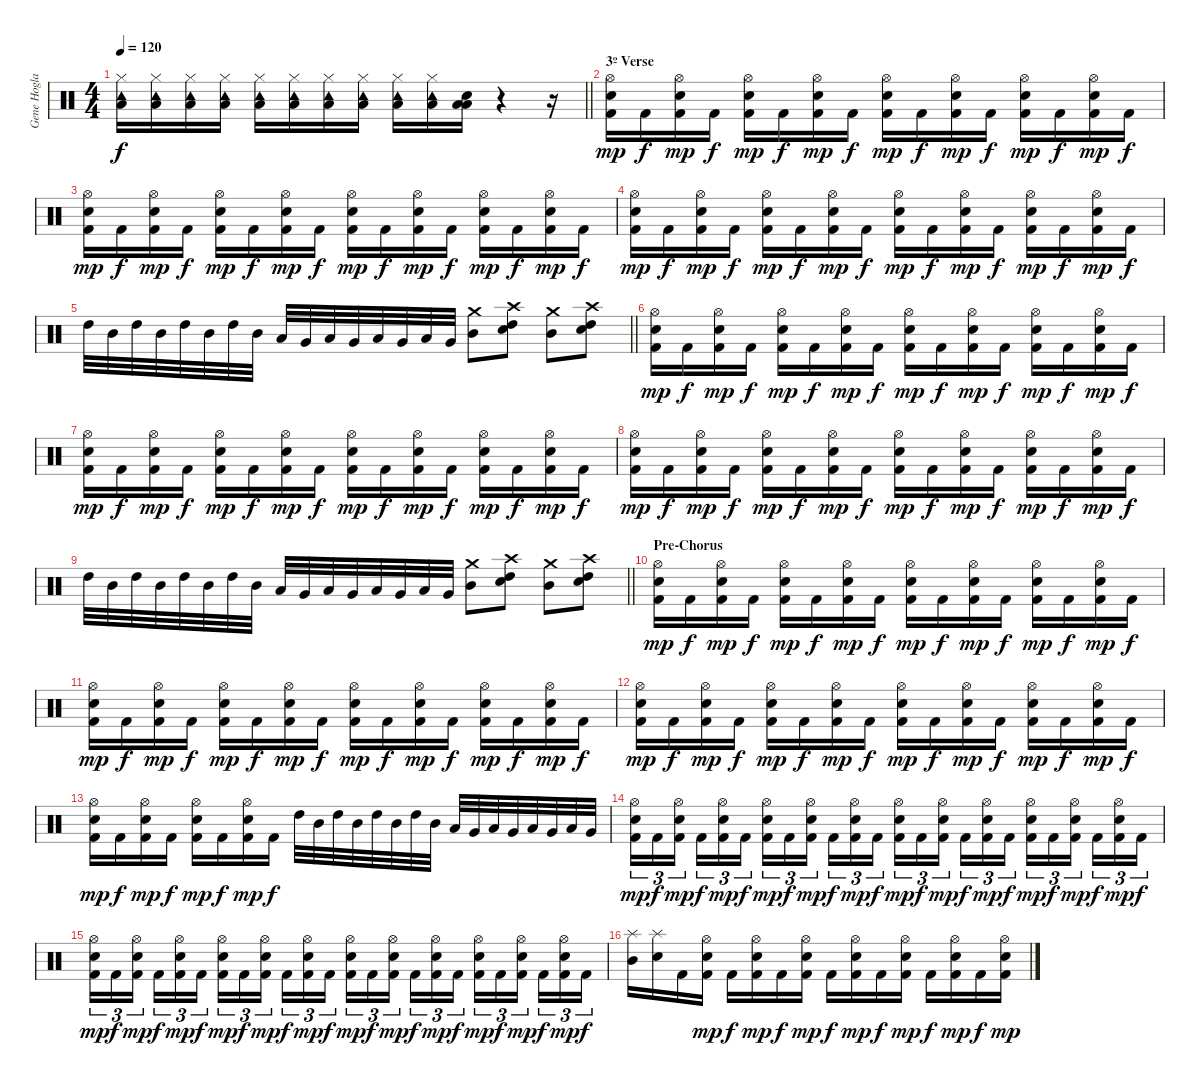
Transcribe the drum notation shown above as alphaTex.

\track ("Gene Hoglan" "Gene Hogla") {instrument percussion}
\staff {score}
\articulation defaults
\ts (4 4)
\tempo 120
\clef neutral
\barLineRight lightlight
\ks c
("Hi-Hat (closed)" "Tambourine (hit)" "Low Floor Tom (hit)").16{dy f} ("Hi-Hat (closed)" "Tambourine (hit)" "Low Floor Tom (hit)").16 ("Hi-Hat (closed)" "Tambourine (hit)" "Low Floor Tom (hit)").16 ("Hi-Hat (closed)" "Tambourine (hit)" "Low Floor Tom (hit)").16 ("Hi-Hat (closed)" "Tambourine (hit)" "Low Floor Tom (hit)").16 ("Hi-Hat (closed)" "Tambourine (hit)" "Low Floor Tom (hit)").16 ("Hi-Hat (closed)" "Tambourine (hit)" "Low Floor Tom (hit)").16 ("Hi-Hat (closed)" "Tambourine (hit)" "Low Floor Tom (hit)").16 ("Hi-Hat (closed)" "Tambourine (hit)" "Low Floor Tom (hit)").16 ("Hi-Hat (closed)" "Tambourine (hit)" "Low Floor Tom (hit)").16 ("Low Tom (hit)" "Electric Snare (hit)" "Low Floor Tom (hit)").16 r.4 r.16 |
\section ("" "3º Verse")
("Hi-Hat (open)" "Snare (hit) 2" "Kick (hit) 2").16{dy mp} "Kick (hit) 2".16{dy f} ("Hi-Hat (open)" "Snare (hit) 2" "Kick (hit) 2").16{dy mp} "Kick (hit) 2".16{dy f} ("Hi-Hat (open)" "Snare (hit) 2" "Kick (hit) 2").16{dy mp} "Kick (hit) 2".16{dy f} ("Hi-Hat (open)" "Snare (hit) 2" "Kick (hit) 2").16{dy mp} "Kick (hit) 2".16{dy f} ("Hi-Hat (open)" "Snare (hit) 2" "Kick (hit) 2").16{dy mp} "Kick (hit) 2".16{dy f} ("Hi-Hat (open)" "Snare (hit) 2" "Kick (hit) 2").16{dy mp} "Kick (hit) 2".16{dy f} ("Hi-Hat (open)" "Snare (hit) 2" "Kick (hit) 2").16{dy mp} "Kick (hit) 2".16{dy f} ("Hi-Hat (open)" "Snare (hit) 2" "Kick (hit) 2").16{dy mp} "Kick (hit) 2".16{dy f} |
("Hi-Hat (open)" "Snare (hit) 2" "Kick (hit) 2").16{dy mp} "Kick (hit) 2".16{dy f} ("Hi-Hat (open)" "Snare (hit) 2" "Kick (hit) 2").16{dy mp} "Kick (hit) 2".16{dy f} ("Hi-Hat (open)" "Snare (hit) 2" "Kick (hit) 2").16{dy mp} "Kick (hit) 2".16{dy f} ("Hi-Hat (open)" "Snare (hit) 2" "Kick (hit) 2").16{dy mp} "Kick (hit) 2".16{dy f} ("Hi-Hat (open)" "Snare (hit) 2" "Kick (hit) 2").16{dy mp} "Kick (hit) 2".16{dy f} ("Hi-Hat (open)" "Snare (hit) 2" "Kick (hit) 2").16{dy mp} "Kick (hit) 2".16{dy f} ("Hi-Hat (open)" "Snare (hit) 2" "Kick (hit) 2").16{dy mp} "Kick (hit) 2".16{dy f} ("Hi-Hat (open)" "Snare (hit) 2" "Kick (hit) 2").16{dy mp} "Kick (hit) 2".16{dy f} |
("Hi-Hat (open)" "Snare (hit) 2" "Kick (hit) 2").16{dy mp} "Kick (hit) 2".16{dy f} ("Hi-Hat (open)" "Snare (hit) 2" "Kick (hit) 2").16{dy mp} "Kick (hit) 2".16{dy f} ("Hi-Hat (open)" "Snare (hit) 2" "Kick (hit) 2").16{dy mp} "Kick (hit) 2".16{dy f} ("Hi-Hat (open)" "Snare (hit) 2" "Kick (hit) 2").16{dy mp} "Kick (hit) 2".16{dy f} ("Hi-Hat (open)" "Snare (hit) 2" "Kick (hit) 2").16{dy mp} "Kick (hit) 2".16{dy f} ("Hi-Hat (open)" "Snare (hit) 2" "Kick (hit) 2").16{dy mp} "Kick (hit) 2".16{dy f} ("Hi-Hat (open)" "Snare (hit) 2" "Kick (hit) 2").16{dy mp} "Kick (hit) 2".16{dy f} ("Hi-Hat (open)" "Snare (hit) 2" "Kick (hit) 2").16{dy mp} "Kick (hit) 2".16{dy f} |
\barLineRight lightlight "High Tom (hit)".32 "Mid Tom (hit)".32 "High Tom (hit)".32 "Mid Tom (hit)".32 "High Tom (hit)".32 "Mid Tom (hit)".32 "High Tom (hit)".32 "Mid Tom (hit)".32 "Low Tom (hit)".32 "Very Low Tom (hit)".32 "Low Tom (hit)".32 "Very Low Tom (hit)".32 "Low Tom (hit)".32 "Very Low Tom (hit)".32 "Low Tom (hit)".32 "Very Low Tom (hit)".32
("Mid Tom (hit)" "Crash medium (hit)").8 ("High Tom (hit)" "Crash high (hit)" "Electric Snare (hit)").8 ("Mid Tom (hit)" "Crash medium (hit)").8 ("High Tom (hit)" "Crash high (hit)" "Electric Snare (hit)").8 |
("Hi-Hat (open)" "Snare (hit) 2" "Kick (hit) 2").16{dy mp} "Kick (hit) 2".16{dy f} ("Hi-Hat (open)" "Snare (hit) 2" "Kick (hit) 2").16{dy mp} "Kick (hit) 2".16{dy f} ("Hi-Hat (open)" "Snare (hit) 2" "Kick (hit) 2").16{dy mp} "Kick (hit) 2".16{dy f} ("Hi-Hat (open)" "Snare (hit) 2" "Kick (hit) 2").16{dy mp} "Kick (hit) 2".16{dy f} ("Hi-Hat (open)" "Snare (hit) 2" "Kick (hit) 2").16{dy mp} "Kick (hit) 2".16{dy f} ("Hi-Hat (open)" "Snare (hit) 2" "Kick (hit) 2").16{dy mp} "Kick (hit) 2".16{dy f} ("Hi-Hat (open)" "Snare (hit) 2" "Kick (hit) 2").16{dy mp} "Kick (hit) 2".16{dy f} ("Hi-Hat (open)" "Snare (hit) 2" "Kick (hit) 2").16{dy mp} "Kick (hit) 2".16{dy f} |
("Hi-Hat (open)" "Snare (hit) 2" "Kick (hit) 2").16{dy mp} "Kick (hit) 2".16{dy f} ("Hi-Hat (open)" "Snare (hit) 2" "Kick (hit) 2").16{dy mp} "Kick (hit) 2".16{dy f} ("Hi-Hat (open)" "Snare (hit) 2" "Kick (hit) 2").16{dy mp} "Kick (hit) 2".16{dy f} ("Hi-Hat (open)" "Snare (hit) 2" "Kick (hit) 2").16{dy mp} "Kick (hit) 2".16{dy f} ("Hi-Hat (open)" "Snare (hit) 2" "Kick (hit) 2").16{dy mp} "Kick (hit) 2".16{dy f} ("Hi-Hat (open)" "Snare (hit) 2" "Kick (hit) 2").16{dy mp} "Kick (hit) 2".16{dy f} ("Hi-Hat (open)" "Snare (hit) 2" "Kick (hit) 2").16{dy mp} "Kick (hit) 2".16{dy f} ("Hi-Hat (open)" "Snare (hit) 2" "Kick (hit) 2").16{dy mp} "Kick (hit) 2".16{dy f} |
("Hi-Hat (open)" "Snare (hit) 2" "Kick (hit) 2").16{dy mp} "Kick (hit) 2".16{dy f} ("Hi-Hat (open)" "Snare (hit) 2" "Kick (hit) 2").16{dy mp} "Kick (hit) 2".16{dy f} ("Hi-Hat (open)" "Snare (hit) 2" "Kick (hit) 2").16{dy mp} "Kick (hit) 2".16{dy f} ("Hi-Hat (open)" "Snare (hit) 2" "Kick (hit) 2").16{dy mp} "Kick (hit) 2".16{dy f} ("Hi-Hat (open)" "Snare (hit) 2" "Kick (hit) 2").16{dy mp} "Kick (hit) 2".16{dy f} ("Hi-Hat (open)" "Snare (hit) 2" "Kick (hit) 2").16{dy mp} "Kick (hit) 2".16{dy f} ("Hi-Hat (open)" "Snare (hit) 2" "Kick (hit) 2").16{dy mp} "Kick (hit) 2".16{dy f} ("Hi-Hat (open)" "Snare (hit) 2" "Kick (hit) 2").16{dy mp} "Kick (hit) 2".16{dy f} |
\barLineRight lightlight "High Tom (hit)".32 "Mid Tom (hit)".32 "High Tom (hit)".32 "Mid Tom (hit)".32 "High Tom (hit)".32 "Mid Tom (hit)".32 "High Tom (hit)".32 "Mid Tom (hit)".32 "Low Tom (hit)".32 "Very Low Tom (hit)".32 "Low Tom (hit)".32 "Very Low Tom (hit)".32 "Low Tom (hit)".32 "Very Low Tom (hit)".32 "Low Tom (hit)".32 "Very Low Tom (hit)".32
("Mid Tom (hit)" "Crash medium (hit)").8 ("High Tom (hit)" "Crash high (hit)" "Electric Snare (hit)").8 ("Mid Tom (hit)" "Crash medium (hit)").8 ("High Tom (hit)" "Crash high (hit)" "Electric Snare (hit)").8 |
\section ("" "Pre-Chorus")
("Hi-Hat (open)" "Snare (hit) 2" "Kick (hit) 2").16{dy mp} "Kick (hit) 2".16{dy f} ("Hi-Hat (open)" "Snare (hit) 2" "Kick (hit) 2").16{dy mp} "Kick (hit) 2".16{dy f} ("Hi-Hat (open)" "Snare (hit) 2" "Kick (hit) 2").16{dy mp} "Kick (hit) 2".16{dy f} ("Hi-Hat (open)" "Snare (hit) 2" "Kick (hit) 2").16{dy mp} "Kick (hit) 2".16{dy f} ("Hi-Hat (open)" "Snare (hit) 2" "Kick (hit) 2").16{dy mp} "Kick (hit) 2".16{dy f} ("Hi-Hat (open)" "Snare (hit) 2" "Kick (hit) 2").16{dy mp} "Kick (hit) 2".16{dy f} ("Hi-Hat (open)" "Snare (hit) 2" "Kick (hit) 2").16{dy mp} "Kick (hit) 2".16{dy f} ("Hi-Hat (open)" "Snare (hit) 2" "Kick (hit) 2").16{dy mp} "Kick (hit) 2".16{dy f} |
("Hi-Hat (open)" "Snare (hit) 2" "Kick (hit) 2").16{dy mp} "Kick (hit) 2".16{dy f} ("Hi-Hat (open)" "Snare (hit) 2" "Kick (hit) 2").16{dy mp} "Kick (hit) 2".16{dy f} ("Hi-Hat (open)" "Snare (hit) 2" "Kick (hit) 2").16{dy mp} "Kick (hit) 2".16{dy f} ("Hi-Hat (open)" "Snare (hit) 2" "Kick (hit) 2").16{dy mp} "Kick (hit) 2".16{dy f} ("Hi-Hat (open)" "Snare (hit) 2" "Kick (hit) 2").16{dy mp} "Kick (hit) 2".16{dy f} ("Hi-Hat (open)" "Snare (hit) 2" "Kick (hit) 2").16{dy mp} "Kick (hit) 2".16{dy f} ("Hi-Hat (open)" "Snare (hit) 2" "Kick (hit) 2").16{dy mp} "Kick (hit) 2".16{dy f} ("Hi-Hat (open)" "Snare (hit) 2" "Kick (hit) 2").16{dy mp} "Kick (hit) 2".16{dy f} |
("Hi-Hat (open)" "Snare (hit) 2" "Kick (hit) 2").16{dy mp} "Kick (hit) 2".16{dy f} ("Hi-Hat (open)" "Snare (hit) 2" "Kick (hit) 2").16{dy mp} "Kick (hit) 2".16{dy f} ("Hi-Hat (open)" "Snare (hit) 2" "Kick (hit) 2").16{dy mp} "Kick (hit) 2".16{dy f} ("Hi-Hat (open)" "Snare (hit) 2" "Kick (hit) 2").16{dy mp} "Kick (hit) 2".16{dy f} ("Hi-Hat (open)" "Snare (hit) 2" "Kick (hit) 2").16{dy mp} "Kick (hit) 2".16{dy f} ("Hi-Hat (open)" "Snare (hit) 2" "Kick (hit) 2").16{dy mp} "Kick (hit) 2".16{dy f} ("Hi-Hat (open)" "Snare (hit) 2" "Kick (hit) 2").16{dy mp} "Kick (hit) 2".16{dy f} ("Hi-Hat (open)" "Snare (hit) 2" "Kick (hit) 2").16{dy mp} "Kick (hit) 2".16{dy f} |
("Hi-Hat (open)" "Snare (hit) 2" "Kick (hit) 2").16{dy mp} "Kick (hit) 2".16{dy f} ("Hi-Hat (open)" "Snare (hit) 2" "Kick (hit) 2").16{dy mp} "Kick (hit) 2".16{dy f} ("Hi-Hat (open)" "Snare (hit) 2" "Kick (hit) 2").16{dy mp} "Kick (hit) 2".16{dy f} ("Hi-Hat (open)" "Snare (hit) 2" "Kick (hit) 2").16{dy mp} "Kick (hit) 2".16{dy f} "High Tom (hit)".32 "Mid Tom (hit)".32 "High Tom (hit)".32 "Mid Tom (hit)".32 "High Tom (hit)".32 "Mid Tom (hit)".32 "High Tom (hit)".32 "Mid Tom (hit)".32 "Low Tom (hit)".32 "Very Low Tom (hit)".32 "Low Tom (hit)".32 "Very Low Tom (hit)".32 "Low Tom (hit)".32 "Very Low Tom (hit)".32 "Low Tom (hit)".32 "Very Low Tom (hit)".32 |
("Hi-Hat (open)" "Snare (hit) 2" "Kick (hit) 2").16{tu (3 2) dy mp} "Kick (hit) 2".16{tu (3 2) dy f} ("Hi-Hat (open)" "Snare (hit) 2" "Kick (hit) 2").16{tu (3 2) dy mp beam splitsecondary} "Kick (hit) 2".16{tu (3 2) dy f} ("Hi-Hat (open)" "Snare (hit) 2" "Kick (hit) 2").16{tu (3 2) dy mp} "Kick (hit) 2".16{tu (3 2) dy f} ("Hi-Hat (open)" "Snare (hit) 2" "Kick (hit) 2").16{tu (3 2) dy mp} "Kick (hit) 2".16{tu (3 2) dy f} ("Hi-Hat (open)" "Snare (hit) 2" "Kick (hit) 2").16{tu (3 2) dy mp beam splitsecondary} "Kick (hit) 2".16{tu (3 2) dy f} ("Hi-Hat (open)" "Snare (hit) 2" "Kick (hit) 2").16{tu (3 2) dy mp} "Kick (hit) 2".16{tu (3 2) dy f} ("Hi-Hat (open)" "Snare (hit) 2" "Kick (hit) 2").16{tu (3 2) dy mp} "Kick (hit) 2".16{tu (3 2) dy f} ("Hi-Hat (open)" "Snare (hit) 2" "Kick (hit) 2").16{tu (3 2) dy mp beam splitsecondary} "Kick (hit) 2".16{tu (3 2) dy f} ("Hi-Hat (open)" "Snare (hit) 2" "Kick (hit) 2").16{tu (3 2) dy mp} "Kick (hit) 2".16{tu (3 2) dy f} ("Hi-Hat (open)" "Snare (hit) 2" "Kick (hit) 2").16{tu (3 2) dy mp} "Kick (hit) 2".16{tu (3 2) dy f} ("Hi-Hat (open)" "Snare (hit) 2" "Kick (hit) 2").16{tu (3 2) dy mp beam splitsecondary} "Kick (hit) 2".16{tu (3 2) dy f} ("Hi-Hat (open)" "Snare (hit) 2" "Kick (hit) 2").16{tu (3 2) dy mp} "Kick (hit) 2".16{tu (3 2) dy f} |
("Hi-Hat (open)" "Snare (hit) 2" "Kick (hit) 2").16{tu (3 2) dy mp} "Kick (hit) 2".16{tu (3 2) dy f} ("Hi-Hat (open)" "Snare (hit) 2" "Kick (hit) 2").16{tu (3 2) dy mp beam splitsecondary} "Kick (hit) 2".16{tu (3 2) dy f} ("Hi-Hat (open)" "Snare (hit) 2" "Kick (hit) 2").16{tu (3 2) dy mp} "Kick (hit) 2".16{tu (3 2) dy f} ("Hi-Hat (open)" "Snare (hit) 2" "Kick (hit) 2").16{tu (3 2) dy mp} "Kick (hit) 2".16{tu (3 2) dy f} ("Hi-Hat (open)" "Snare (hit) 2" "Kick (hit) 2").16{tu (3 2) dy mp beam splitsecondary} "Kick (hit) 2".16{tu (3 2) dy f} ("Hi-Hat (open)" "Snare (hit) 2" "Kick (hit) 2").16{tu (3 2) dy mp} "Kick (hit) 2".16{tu (3 2) dy f} ("Hi-Hat (open)" "Snare (hit) 2" "Kick (hit) 2").16{tu (3 2) dy mp} "Kick (hit) 2".16{tu (3 2) dy f} ("Hi-Hat (open)" "Snare (hit) 2" "Kick (hit) 2").16{tu (3 2) dy mp beam splitsecondary} "Kick (hit) 2".16{tu (3 2) dy f} ("Hi-Hat (open)" "Snare (hit) 2" "Kick (hit) 2").16{tu (3 2) dy mp} "Kick (hit) 2".16{tu (3 2) dy f} ("Hi-Hat (open)" "Snare (hit) 2" "Kick (hit) 2").16{tu (3 2) dy mp} "Kick (hit) 2".16{tu (3 2) dy f} ("Hi-Hat (open)" "Snare (hit) 2" "Kick (hit) 2").16{tu (3 2) dy mp beam splitsecondary} "Kick (hit) 2".16{tu (3 2) dy f} ("Hi-Hat (open)" "Snare (hit) 2" "Kick (hit) 2").16{tu (3 2) dy mp} "Kick (hit) 2".16{tu (3 2) dy f} |
("Splash (hit)" "Mid Tom (hit)").16 ("Electric Snare (hit)" "Splash (hit)").16 "Kick (hit) 2".16 ("Hi-Hat (open)" "Snare (hit) 2" "Kick (hit) 2").16{dy mp} "Kick (hit) 2".16{dy f} ("Hi-Hat (open)" "Snare (hit) 2" "Kick (hit) 2").16{dy mp} "Kick (hit) 2".16{dy f} ("Hi-Hat (open)" "Snare (hit) 2" "Kick (hit) 2").16{dy mp} "Kick (hit) 2".16{dy f} ("Hi-Hat (open)" "Snare (hit) 2" "Kick (hit) 2").16{dy mp} "Kick (hit) 2".16{dy f} ("Hi-Hat (open)" "Snare (hit) 2" "Kick (hit) 2").16{dy mp} "Kick (hit) 2".16{dy f} ("Hi-Hat (open)" "Snare (hit) 2" "Kick (hit) 2").16{dy mp} "Kick (hit) 2".16{dy f} ("Hi-Hat (open)" "Snare (hit) 2" "Kick (hit) 2").16{dy mp}
